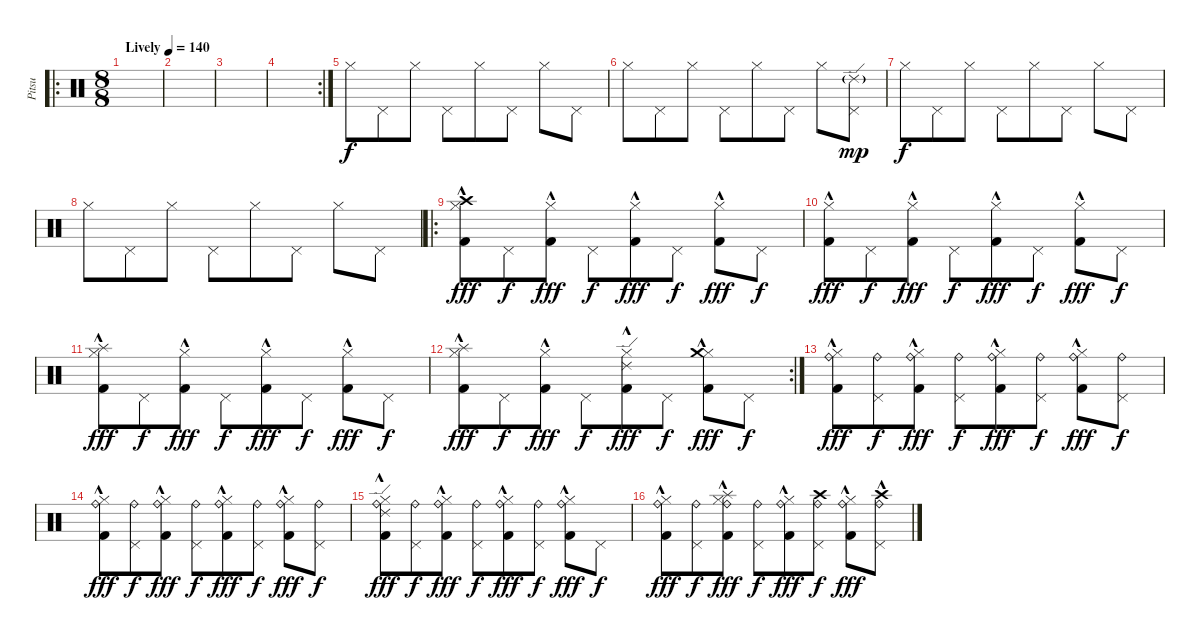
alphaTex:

\track ("Pitsu" "Pitsu") {instrument percussion}
\staff {score}
\articulation defaults
\ro
\ts (8 8)
\tempo (140 "Lively")
\clef neutral
\ks c
|
|
|
\rc 2
|
"Hi-Hat (closed)".8 "Pedal Hi-Hat (hit)".8 "Hi-Hat (closed)".8 "Pedal Hi-Hat (hit)".8 "Hi-Hat (closed)".8 "Pedal Hi-Hat (hit)".8 "Hi-Hat (closed)".8 "Pedal Hi-Hat (hit)".8 |
"Hi-Hat (closed)".8 "Pedal Hi-Hat (hit)".8 "Hi-Hat (closed)".8 "Pedal Hi-Hat (hit)".8 "Hi-Hat (closed)".8 "Pedal Hi-Hat (hit)".8 "Hi-Hat (closed)".8 ("Pedal Hi-Hat (hit)" "Ride (edge) 2"{g}).8{dy mp} |
"Hi-Hat (closed)".8{dy f} "Pedal Hi-Hat (hit)".8 "Hi-Hat (closed)".8 "Pedal Hi-Hat (hit)".8 "Hi-Hat (closed)".8 "Pedal Hi-Hat (hit)".8 "Hi-Hat (closed)".8 "Pedal Hi-Hat (hit)".8 |
"Hi-Hat (closed)".8 "Pedal Hi-Hat (hit)".8 "Hi-Hat (closed)".8 "Pedal Hi-Hat (hit)".8 "Hi-Hat (closed)".8 "Pedal Hi-Hat (hit)".8 "Hi-Hat (closed)".8 "Pedal Hi-Hat (hit)".8 |
\ro
("Hi-Hat (closed)" "Crash high (hit)" "Kick (hit) 2"{hac}).8{dy fff} "Pedal Hi-Hat (hit)".8{dy f} ("Hi-Hat (closed)" "Kick (hit) 2"{hac}).8{dy fff} "Pedal Hi-Hat (hit)".8{dy f} ("Hi-Hat (closed)" "Kick (hit) 2"{hac}).8{dy fff} "Pedal Hi-Hat (hit)".8{dy f} ("Hi-Hat (closed)" "Kick (hit) 2"{hac}).8{dy fff} "Pedal Hi-Hat (hit)".8{dy f} |
("Hi-Hat (closed)" "Kick (hit) 2"{hac}).8{dy fff} "Pedal Hi-Hat (hit)".8{dy f} ("Hi-Hat (closed)" "Kick (hit) 2"{hac}).8{dy fff} "Pedal Hi-Hat (hit)".8{dy f} ("Hi-Hat (closed)" "Kick (hit) 2"{hac}).8{dy fff} "Pedal Hi-Hat (hit)".8{dy f} ("Hi-Hat (closed)" "Kick (hit) 2"{hac}).8{dy fff} "Pedal Hi-Hat (hit)".8{dy f} |
("Hi-Hat (closed)" "Splash (hit)" "Kick (hit) 2"{hac}).8{dy fff} "Pedal Hi-Hat (hit)".8{dy f} ("Hi-Hat (closed)" "Kick (hit) 2"{hac}).8{dy fff} "Pedal Hi-Hat (hit)".8{dy f} ("Hi-Hat (closed)" "Kick (hit) 2"{hac}).8{dy fff} "Pedal Hi-Hat (hit)".8{dy f} ("Hi-Hat (closed)" "Kick (hit) 2"{hac}).8{dy fff} "Pedal Hi-Hat (hit)".8{dy f} |
\rc 2
("Hi-Hat (closed)" "Splash (hit)" "Kick (hit) 2"{hac}).8{dy fff} "Pedal Hi-Hat (hit)".8{dy f} ("Hi-Hat (closed)" "Kick (hit) 2"{hac}).8{dy fff} "Pedal Hi-Hat (hit)".8{dy f} ("Hi-Hat (closed)" "Ride (edge) 2" "Kick (hit) 2"{hac}).8{dy fff} "Pedal Hi-Hat (hit)".8{dy f} ("Hi-Hat (closed)" "Crash medium (hit)" "Kick (hit) 2"{hac}).8{dy fff} "Pedal Hi-Hat (hit)".8{dy f} |
("Hi-Hat (closed)" "Ride (bell)" "Kick (hit) 2"{hac}).8{dy fff} ("Pedal Hi-Hat (hit)" "Ride (bell)").8{dy f} ("Hi-Hat (closed)" "Ride (bell)" "Kick (hit) 2"{hac}).8{dy fff} ("Pedal Hi-Hat (hit)" "Ride (bell)").8{dy f} ("Hi-Hat (closed)" "Ride (bell)" "Kick (hit) 2"{hac}).8{dy fff} ("Pedal Hi-Hat (hit)" "Ride (bell)").8{dy f} ("Hi-Hat (closed)" "Ride (bell)" "Kick (hit) 2"{hac}).8{dy fff} ("Pedal Hi-Hat (hit)" "Ride (bell)").8{dy f} |
("Hi-Hat (closed)" "Ride (bell)" "Kick (hit) 2"{hac}).8{dy fff} ("Pedal Hi-Hat (hit)" "Ride (bell)").8{dy f} ("Hi-Hat (closed)" "Ride (bell)" "Kick (hit) 2"{hac}).8{dy fff} ("Pedal Hi-Hat (hit)" "Ride (bell)").8{dy f} ("Hi-Hat (closed)" "Ride (bell)" "Kick (hit) 2"{hac}).8{dy fff} ("Pedal Hi-Hat (hit)" "Ride (bell)").8{dy f} ("Hi-Hat (closed)" "Ride (bell)" "Kick (hit) 2"{hac}).8{dy fff} ("Pedal Hi-Hat (hit)" "Ride (bell)").8{dy f} |
("Hi-Hat (closed)" "Ride (edge) 2" "Ride (bell)" "Kick (hit) 2"{hac}).8{dy fff} ("Pedal Hi-Hat (hit)" "Ride (bell)").8{dy f} ("Hi-Hat (closed)" "Ride (bell)" "Kick (hit) 2"{hac}).8{dy fff} ("Pedal Hi-Hat (hit)" "Ride (bell)").8{dy f} ("Hi-Hat (closed)" "Ride (bell)" "Kick (hit) 2"{hac}).8{dy fff} ("Pedal Hi-Hat (hit)" "Ride (bell)").8{dy f} ("Hi-Hat (closed)" "Ride (bell)" "Kick (hit) 2"{hac}).8{dy fff} "Pedal Hi-Hat (hit)".8{dy f} |
("Hi-Hat (closed)" "Ride (bell)" "Kick (hit) 2"{hac}).8{dy fff} ("Pedal Hi-Hat (hit)" "Ride (bell)").8{dy f} ("Hi-Hat (closed)" "Splash (hit)" "Ride (bell)" "Kick (hit) 2"{hac}).8{dy fff} ("Pedal Hi-Hat (hit)" "Ride (bell)").8{dy f} ("Hi-Hat (closed)" "Ride (bell)" "Kick (hit) 2"{hac}).8{dy fff} ("Pedal Hi-Hat (hit)" "Crash high (hit)" "Ride (bell)").8{dy f} ("Hi-Hat (closed)" "Ride (bell)" "Kick (hit) 2"{hac}).8{dy fff} ("Pedal Hi-Hat (hit)" "Crash high (hit)" "Ride (bell)"{hac}).8
